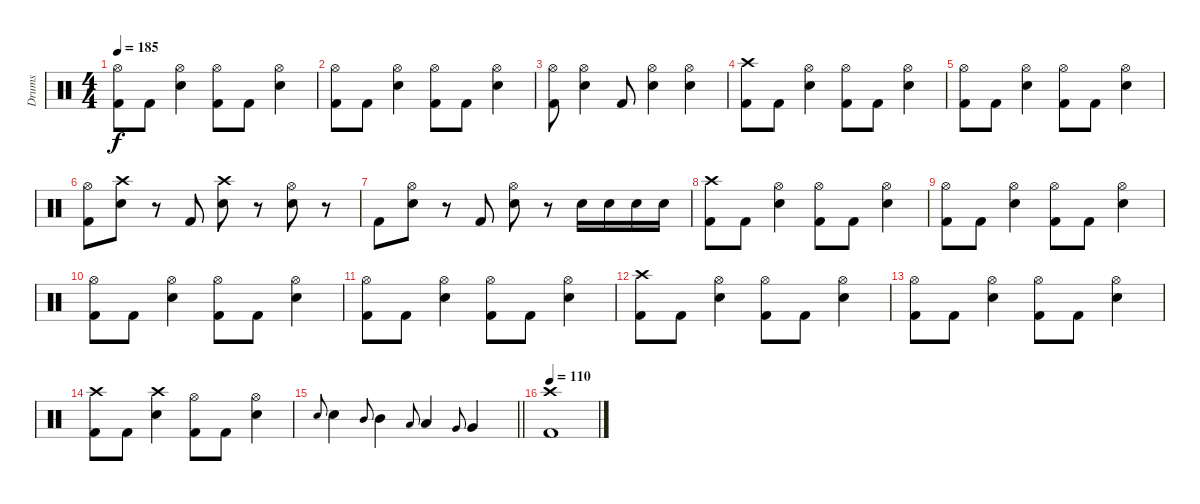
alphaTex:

\track ("Drums" "Drums") {instrument percussion}
\staff {score}
\articulation defaults
\ts (4 4)
\tempo 185
\clef neutral
\ks c
("Hi-Hat (open)" "Kick (hit) 2").8{dy f} "Kick (hit) 2".8 ("Hi-Hat (open)" "Snare (hit) 2").4 ("Hi-Hat (open)" "Kick (hit) 2").8 "Kick (hit) 2".8 ("Hi-Hat (open)" "Snare (hit) 2").4 |
("Hi-Hat (open)" "Kick (hit) 2").8 "Kick (hit) 2".8 ("Hi-Hat (open)" "Snare (hit) 2").4 ("Hi-Hat (open)" "Kick (hit) 2").8 "Kick (hit) 2".8 ("Hi-Hat (open)" "Snare (hit) 2").4 |
("Hi-Hat (open)" "Kick (hit) 2").8 ("Hi-Hat (open)" "Snare (hit) 2").4 "Kick (hit) 2".8 ("Hi-Hat (open)" "Snare (hit) 2").4 ("Hi-Hat (open)" "Snare (hit) 2").4 |
("Crash high (hit)" "Kick (hit) 2").8 "Kick (hit) 2".8 ("Hi-Hat (open)" "Snare (hit) 2").4 ("Hi-Hat (open)" "Kick (hit) 2").8 "Kick (hit) 2".8 ("Hi-Hat (open)" "Snare (hit) 2").4 |
("Hi-Hat (open)" "Kick (hit) 2").8 "Kick (hit) 2".8 ("Hi-Hat (open)" "Snare (hit) 2").4 ("Hi-Hat (open)" "Kick (hit) 2").8 "Kick (hit) 2".8 ("Hi-Hat (open)" "Snare (hit) 2").4 |
("Hi-Hat (open)" "Kick (hit) 2").8 ("Crash high (hit)" "Snare (hit) 2").8 r.8 "Kick (hit) 2".8 ("Crash high (hit)" "Snare (hit) 2").8 r.8 ("Hi-Hat (open)" "Snare (hit) 2").8 r.8 |
"Kick (hit) 2".8 ("Hi-Hat (open)" "Snare (hit) 2").8 r.8 "Kick (hit) 2".8 ("Hi-Hat (open)" "Snare (hit) 2").8 r.8 "Snare (hit) 2".16 "Snare (hit) 2".16 "Snare (hit) 2".16 "Snare (hit) 2".16 |
("Crash high (hit)" "Kick (hit) 2").8 "Kick (hit) 2".8 ("Hi-Hat (open)" "Snare (hit) 2").4 ("Hi-Hat (open)" "Kick (hit) 2").8 "Kick (hit) 2".8 ("Hi-Hat (open)" "Snare (hit) 2").4 |
("Hi-Hat (open)" "Kick (hit) 2").8 "Kick (hit) 2".8 ("Hi-Hat (open)" "Snare (hit) 2").4 ("Hi-Hat (open)" "Kick (hit) 2").8 "Kick (hit) 2".8 ("Hi-Hat (open)" "Snare (hit) 2").4 |
("Hi-Hat (open)" "Kick (hit) 2").8 "Kick (hit) 2".8 ("Hi-Hat (open)" "Snare (hit) 2").4 ("Hi-Hat (open)" "Kick (hit) 2").8 "Kick (hit) 2".8 ("Hi-Hat (open)" "Snare (hit) 2").4 |
("Hi-Hat (open)" "Kick (hit) 2").8 "Kick (hit) 2".8 ("Hi-Hat (open)" "Snare (hit) 2").4 ("Hi-Hat (open)" "Kick (hit) 2").8 "Kick (hit) 2".8 ("Hi-Hat (open)" "Snare (hit) 2").4 |
("Crash high (hit)" "Kick (hit) 2").8 "Kick (hit) 2".8 ("Hi-Hat (open)" "Snare (hit) 2").4 ("Hi-Hat (open)" "Kick (hit) 2").8 "Kick (hit) 2".8 ("Hi-Hat (open)" "Snare (hit) 2").4 |
("Hi-Hat (open)" "Kick (hit) 2").8 "Kick (hit) 2".8 ("Hi-Hat (open)" "Snare (hit) 2").4 ("Hi-Hat (open)" "Kick (hit) 2").8 "Kick (hit) 2".8 ("Hi-Hat (open)" "Snare (hit) 2").4 |
("Crash high (hit)" "Kick (hit) 2").8 "Kick (hit) 2".8 ("Crash high (hit)" "Snare (hit) 2").4 ("Hi-Hat (open)" "Kick (hit) 2").8 "Kick (hit) 2".8 ("Hi-Hat (open)" "Snare (hit) 2").4 |
\barLineRight lightlight "Snare (hit) 2".8{gr onbeat} "Snare (hit) 2".4 "Mid Tom (hit)".8{gr onbeat} "Mid Tom (hit)".4 "Low Tom (hit)".8{gr onbeat} "Low Tom (hit)".4 "Very Low Tom (hit)".8{gr onbeat} "Very Low Tom (hit)".4
|
\tempo 110
("Crash high (hit)" "Kick (hit) 2").1
